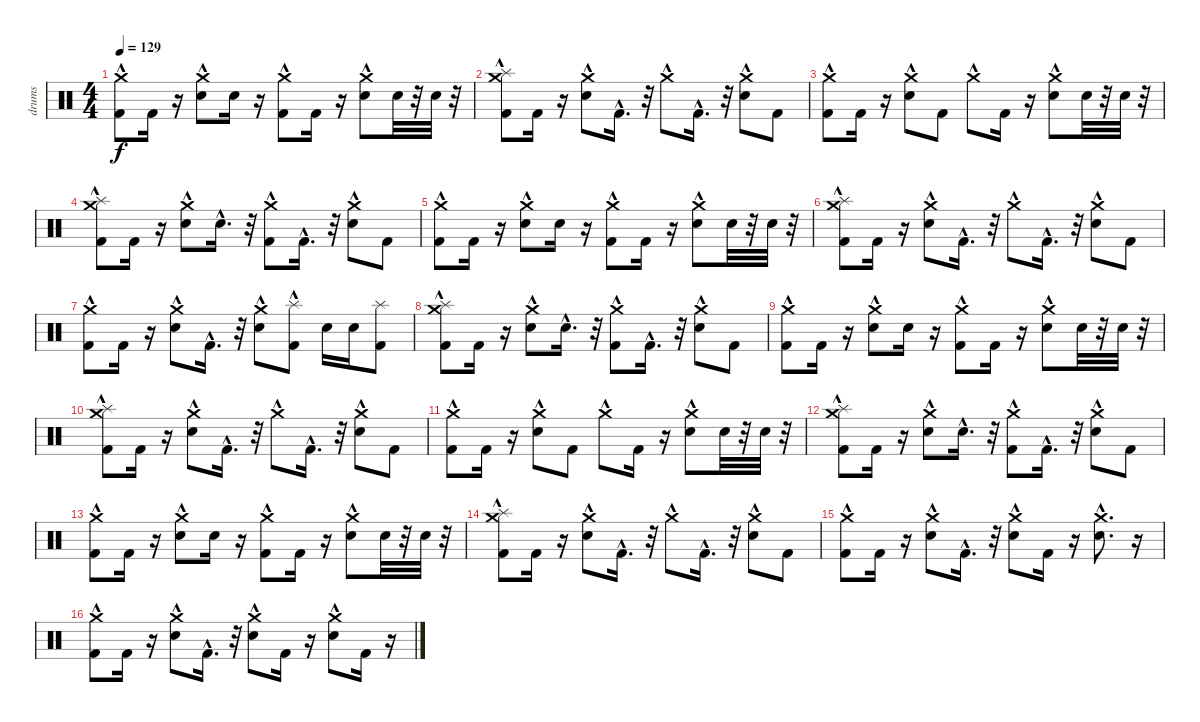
\track ("drums" "drums") {instrument percussion}
\staff {score}
\articulation defaults
\ts (4 4)
\tempo 129
\clef neutral
\ks c
("Kick (hit) 2" "Crash medium (hit)"{hac}).8{dy f} "Kick (hit) 2".16 r.16 ("Snare (hit) 2" "Crash medium (hit)"{hac}).8 "Snare (hit) 2".16 r.16 ("Kick (hit) 2" "Crash medium (hit)"{hac}).8 "Kick (hit) 2".16 r.16 ("Snare (hit) 2" "Crash medium (hit)"{hac}).8 "Snare (hit) 2".32 r.32 "Snare (hit) 2".32 r.32 |
("Crash medium (hit)"{hac} "Kick (hit) 2" "Splash (hit)"{hac}).8 "Kick (hit) 2".16 r.16 ("Crash medium (hit)"{hac} "Snare (hit) 2").8 "Kick (hit) 2"{hac}.16{d} r.32 "Crash medium (hit)"{hac}.8 "Kick (hit) 2"{hac}.16{d} r.32 ("Crash medium (hit)"{hac} "Snare (hit) 2").8 "Kick (hit) 2".8 |
("Crash medium (hit)"{hac} "Kick (hit) 2").8 "Kick (hit) 2".16 r.16 ("Crash medium (hit)"{hac} "Snare (hit) 2").8 "Kick (hit) 2".8 "Crash medium (hit)"{hac}.8 "Kick (hit) 2".16 r.16 ("Crash medium (hit)"{hac} "Snare (hit) 2").8 "Snare (hit) 2".32 r.32 "Snare (hit) 2".32 r.32 |
("Kick (hit) 2" "Splash (hit)"{hac} "Crash medium (hit)"{hac}).8 "Kick (hit) 2".16 r.16 ("Snare (hit) 2" "Crash medium (hit)"{hac}).8 "Snare (hit) 2"{hac}.16{d} r.32 ("Kick (hit) 2"{hac} "Crash medium (hit)"{hac}).8 "Kick (hit) 2"{hac}.16{d} r.32 ("Snare (hit) 2" "Crash medium (hit)"{hac}).8 "Kick (hit) 2".8 |
("Kick (hit) 2" "Crash medium (hit)"{hac}).8 "Kick (hit) 2".16 r.16 ("Snare (hit) 2" "Crash medium (hit)"{hac}).8 "Snare (hit) 2".16 r.16 ("Kick (hit) 2" "Crash medium (hit)"{hac}).8 "Kick (hit) 2".16 r.16 ("Snare (hit) 2" "Crash medium (hit)"{hac}).8 "Snare (hit) 2".32 r.32 "Snare (hit) 2".32 r.32 |
("Kick (hit) 2" "Splash (hit)"{hac} "Crash medium (hit)"{hac}).8 "Kick (hit) 2".16 r.16 ("Snare (hit) 2" "Crash medium (hit)"{hac}).8 "Kick (hit) 2"{hac}.16{d} r.32 "Crash medium (hit)"{hac}.8 "Kick (hit) 2"{hac}.16{d} r.32 ("Snare (hit) 2" "Crash medium (hit)"{hac}).8 "Kick (hit) 2".8 |
("Kick (hit) 2" "Crash medium (hit)"{hac}).8 "Kick (hit) 2".16 r.16 ("Snare (hit) 2" "Crash medium (hit)"{hac}).8 "Kick (hit) 2"{hac}.16{d} r.32 ("Snare (hit) 2" "Crash medium (hit)"{hac}).8 ("Kick (hit) 2" "Splash (hit)"{hac}).8 "Snare (hit) 2".16 "Snare (hit) 2".16 ("Kick (hit) 2" "Splash (hit)").8 |
("Kick (hit) 2" "Splash (hit)"{hac} "Crash medium (hit)"{hac}).8 "Kick (hit) 2".16 r.16 ("Snare (hit) 2" "Crash medium (hit)"{hac}).8 "Snare (hit) 2"{hac}.16{d} r.32 ("Kick (hit) 2"{hac} "Crash medium (hit)"{hac}).8 "Kick (hit) 2"{hac}.16{d} r.32 ("Snare (hit) 2" "Crash medium (hit)"{hac}).8 "Kick (hit) 2".8 |
("Kick (hit) 2" "Crash medium (hit)"{hac}).8 "Kick (hit) 2".16 r.16 ("Snare (hit) 2" "Crash medium (hit)"{hac}).8 "Snare (hit) 2".16 r.16 ("Kick (hit) 2" "Crash medium (hit)"{hac}).8 "Kick (hit) 2".16 r.16 ("Snare (hit) 2" "Crash medium (hit)"{hac}).8 "Snare (hit) 2".32 r.32 "Snare (hit) 2".32 r.32 |
("Crash medium (hit)"{hac} "Kick (hit) 2" "Splash (hit)"{hac}).8 "Kick (hit) 2".16 r.16 ("Crash medium (hit)"{hac} "Snare (hit) 2").8 "Kick (hit) 2"{hac}.16{d} r.32 "Crash medium (hit)"{hac}.8 "Kick (hit) 2"{hac}.16{d} r.32 ("Crash medium (hit)"{hac} "Snare (hit) 2").8 "Kick (hit) 2".8 |
("Crash medium (hit)"{hac} "Kick (hit) 2").8 "Kick (hit) 2".16 r.16 ("Crash medium (hit)"{hac} "Snare (hit) 2").8 "Kick (hit) 2".8 "Crash medium (hit)"{hac}.8 "Kick (hit) 2".16 r.16 ("Crash medium (hit)"{hac} "Snare (hit) 2").8 "Snare (hit) 2".32 r.32 "Snare (hit) 2".32 r.32 |
("Kick (hit) 2" "Splash (hit)"{hac} "Crash medium (hit)"{hac}).8 "Kick (hit) 2".16 r.16 ("Snare (hit) 2" "Crash medium (hit)"{hac}).8 "Snare (hit) 2"{hac}.16{d} r.32 ("Kick (hit) 2"{hac} "Crash medium (hit)"{hac}).8 "Kick (hit) 2"{hac}.16{d} r.32 ("Snare (hit) 2" "Crash medium (hit)"{hac}).8 "Kick (hit) 2".8 |
("Kick (hit) 2" "Crash medium (hit)"{hac}).8 "Kick (hit) 2".16 r.16 ("Snare (hit) 2" "Crash medium (hit)"{hac}).8 "Snare (hit) 2".16 r.16 ("Kick (hit) 2" "Crash medium (hit)"{hac}).8 "Kick (hit) 2".16 r.16 ("Snare (hit) 2" "Crash medium (hit)"{hac}).8 "Snare (hit) 2".32 r.32 "Snare (hit) 2".32 r.32 |
("Kick (hit) 2" "Splash (hit)"{hac} "Crash medium (hit)"{hac}).8 "Kick (hit) 2".16 r.16 ("Snare (hit) 2" "Crash medium (hit)"{hac}).8 "Kick (hit) 2"{hac}.16{d} r.32 "Crash medium (hit)"{hac}.8 "Kick (hit) 2"{hac}.16{d} r.32 ("Snare (hit) 2" "Crash medium (hit)"{hac}).8 "Kick (hit) 2".8 |
("Kick (hit) 2" "Crash medium (hit)"{hac}).8 "Kick (hit) 2".16 r.16 ("Snare (hit) 2" "Crash medium (hit)"{hac}).8 "Kick (hit) 2"{hac}.16{d} r.32 ("Snare (hit) 2" "Crash medium (hit)"{hac}).8 "Kick (hit) 2".16 r.16 ("Snare (hit) 2" "Crash medium (hit)"{hac}).8{d} r.16 |
("Kick (hit) 2" "Crash medium (hit)"{hac}).8 "Kick (hit) 2".16 r.16 ("Snare (hit) 2" "Crash medium (hit)"{hac}).8 "Kick (hit) 2"{hac}.16{d} r.32 ("Snare (hit) 2" "Crash medium (hit)"{hac}).8 "Kick (hit) 2".16 r.16 ("Snare (hit) 2" "Crash medium (hit)"{hac}).8 "Kick (hit) 2".16 r.16
